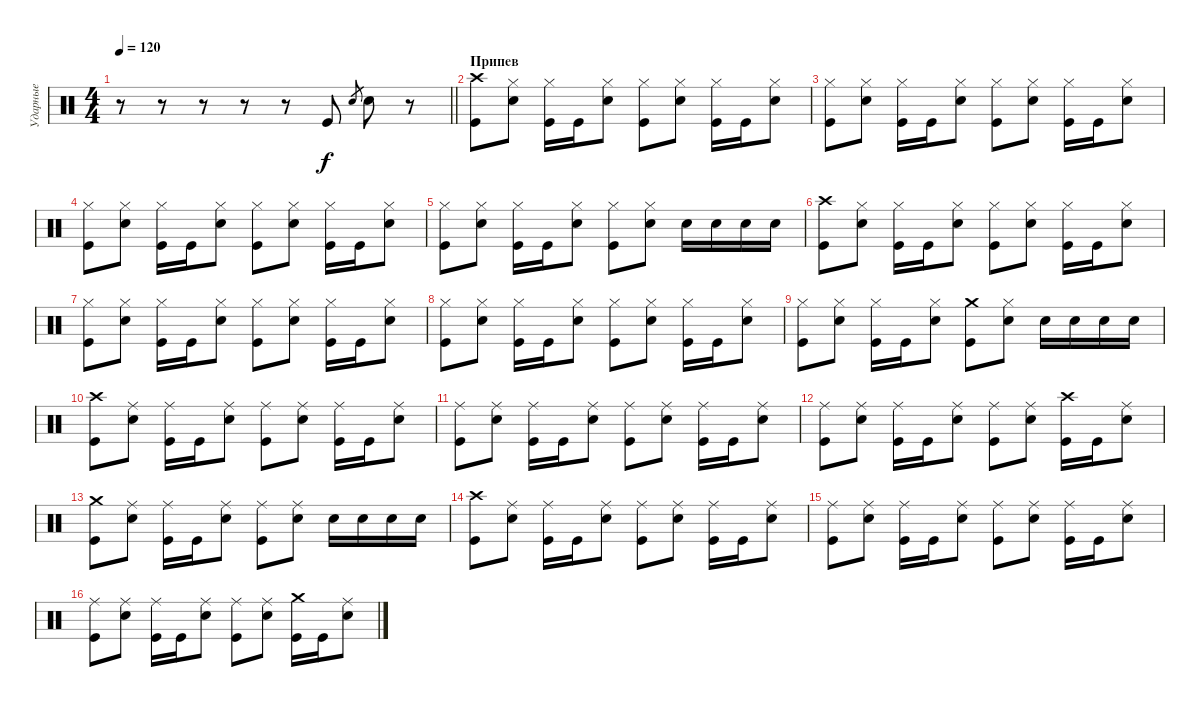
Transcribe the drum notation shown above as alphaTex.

\track ("Ударные" "Ударные") {solo instrument percussion}
\staff {score}
\articulation defaults
\ts (4 4)
\tempo 120
\clef neutral
\barLineRight lightlight
\ks c
r.8{dy f} r.8 r.8 r.8 r.8 "Kick (hit)".8 "Snare (hit) 2".8{gr} "Snare (hit) 2".8 r.8 |
\section ("" "Припев")
("Kick (hit)" "Crash high (hit)").8 ("Snare (hit) 2" "Hi-Hat (closed)").8 ("Kick (hit)" "Hi-Hat (closed)").16 "Kick (hit)".16 ("Snare (hit) 2" "Hi-Hat (closed)").8 ("Kick (hit)" "Hi-Hat (closed)").8 ("Snare (hit) 2" "Hi-Hat (closed)").8 ("Kick (hit)" "Hi-Hat (closed)").16 "Kick (hit)".16 ("Snare (hit) 2" "Hi-Hat (closed)").8 |
("Kick (hit)" "Hi-Hat (closed)").8 ("Snare (hit) 2" "Hi-Hat (closed)").8 ("Kick (hit)" "Hi-Hat (closed)").16 "Kick (hit)".16 ("Snare (hit) 2" "Hi-Hat (closed)").8 ("Kick (hit)" "Hi-Hat (closed)").8 ("Snare (hit) 2" "Hi-Hat (closed)").8 ("Kick (hit)" "Hi-Hat (closed)").16 "Kick (hit)".16 ("Snare (hit) 2" "Hi-Hat (closed)").8 |
("Kick (hit)" "Hi-Hat (closed)").8 ("Snare (hit) 2" "Hi-Hat (closed)").8 ("Kick (hit)" "Hi-Hat (closed)").16 "Kick (hit)".16 ("Snare (hit) 2" "Hi-Hat (closed)").8 ("Kick (hit)" "Hi-Hat (closed)").8 ("Snare (hit) 2" "Hi-Hat (closed)").8 ("Kick (hit)" "Hi-Hat (closed)").16 "Kick (hit)".16 ("Snare (hit) 2" "Hi-Hat (closed)").8 |
("Kick (hit)" "Hi-Hat (closed)").8 ("Snare (hit) 2" "Hi-Hat (closed)").8 ("Kick (hit)" "Hi-Hat (closed)").16 "Kick (hit)".16 ("Snare (hit) 2" "Hi-Hat (closed)").8 ("Kick (hit)" "Hi-Hat (closed)").8 ("Snare (hit) 2" "Hi-Hat (closed)").8 "Snare (hit) 2".16 "Snare (hit) 2".16 "Snare (hit) 2".16 "Snare (hit) 2".16 |
("Kick (hit)" "Crash high (hit)").8 ("Snare (hit) 2" "Hi-Hat (closed)").8 ("Kick (hit)" "Hi-Hat (closed)").16 "Kick (hit)".16 ("Snare (hit) 2" "Hi-Hat (closed)").8 ("Kick (hit)" "Hi-Hat (closed)").8 ("Snare (hit) 2" "Hi-Hat (closed)").8 ("Kick (hit)" "Hi-Hat (closed)").16 "Kick (hit)".16 ("Snare (hit) 2" "Hi-Hat (closed)").8 |
("Kick (hit)" "Hi-Hat (closed)").8 ("Snare (hit) 2" "Hi-Hat (closed)").8 ("Kick (hit)" "Hi-Hat (closed)").16 "Kick (hit)".16 ("Snare (hit) 2" "Hi-Hat (closed)").8 ("Kick (hit)" "Hi-Hat (closed)").8 ("Snare (hit) 2" "Hi-Hat (closed)").8 ("Kick (hit)" "Hi-Hat (closed)").16 "Kick (hit)".16 ("Snare (hit) 2" "Hi-Hat (closed)").8 |
("Kick (hit)" "Hi-Hat (closed)").8 ("Snare (hit) 2" "Hi-Hat (closed)").8 ("Kick (hit)" "Hi-Hat (closed)").16 "Kick (hit)".16 ("Snare (hit) 2" "Hi-Hat (closed)").8 ("Kick (hit)" "Hi-Hat (closed)").8 ("Snare (hit) 2" "Hi-Hat (closed)").8 ("Kick (hit)" "Hi-Hat (closed)").16 "Kick (hit)".16 ("Snare (hit) 2" "Hi-Hat (closed)").8 |
("Kick (hit)" "Hi-Hat (closed)").8 ("Snare (hit) 2" "Hi-Hat (closed)").8 ("Kick (hit)" "Hi-Hat (closed)").16 "Kick (hit)".16 ("Snare (hit) 2" "Hi-Hat (closed)").8 ("Kick (hit)" "Crash medium (hit)").8 ("Snare (hit) 2" "Hi-Hat (closed)").8 "Snare (hit) 2".16 "Snare (hit) 2".16 "Snare (hit) 2".16 "Snare (hit) 2".16 |
("Kick (hit)" "Crash high (hit)").8 ("Snare (hit) 2" "Ride (middle)").8 ("Kick (hit)" "Ride (middle)").16 "Kick (hit)".16 ("Snare (hit) 2" "Ride (middle)").8 ("Kick (hit)" "Ride (middle)").8 ("Snare (hit) 2" "Ride (middle)").8 ("Kick (hit)" "Ride (middle)").16 "Kick (hit)".16 ("Snare (hit) 2" "Ride (middle)").8 |
("Kick (hit)" "Ride (middle)").8 ("Snare (hit) 2" "Ride (middle)").8 ("Kick (hit)" "Ride (middle)").16 "Kick (hit)".16 ("Snare (hit) 2" "Ride (middle)").8 ("Kick (hit)" "Ride (middle)").8 ("Snare (hit) 2" "Ride (middle)").8 ("Kick (hit)" "Ride (middle)").16 "Kick (hit)".16 ("Snare (hit) 2" "Ride (middle)").8 |
("Kick (hit)" "Ride (middle)").8 ("Snare (hit) 2" "Ride (middle)").8 ("Kick (hit)" "Ride (middle)").16 "Kick (hit)".16 ("Snare (hit) 2" "Ride (middle)").8 ("Kick (hit)" "Ride (middle)").8 ("Snare (hit) 2" "Ride (middle)").8 ("Kick (hit)" "Crash high (hit)").16 "Kick (hit)".16 ("Snare (hit) 2" "Ride (middle)").8 |
("Kick (hit)" "Crash medium (hit)").8 ("Snare (hit) 2" "Ride (middle)").8 ("Kick (hit)" "Ride (middle)").16 "Kick (hit)".16 ("Snare (hit) 2" "Ride (middle)").8 ("Kick (hit)" "Ride (middle)").8 ("Snare (hit) 2" "Ride (middle)").8 "Snare (hit) 2".16 "Snare (hit) 2".16 "Snare (hit) 2".16 "Snare (hit) 2".16 |
("Kick (hit)" "Crash high (hit)").8 ("Snare (hit) 2" "Ride (middle)").8 ("Kick (hit)" "Ride (middle)").16 "Kick (hit)".16 ("Snare (hit) 2" "Ride (middle)").8 ("Kick (hit)" "Ride (middle)").8 ("Snare (hit) 2" "Ride (middle)").8 ("Kick (hit)" "Ride (middle)").16 "Kick (hit)".16 ("Snare (hit) 2" "Ride (middle)").8 |
("Kick (hit)" "Ride (middle)").8 ("Snare (hit) 2" "Ride (middle)").8 ("Kick (hit)" "Ride (middle)").16 "Kick (hit)".16 ("Snare (hit) 2" "Ride (middle)").8 ("Kick (hit)" "Ride (middle)").8 ("Snare (hit) 2" "Ride (middle)").8 ("Kick (hit)" "Ride (middle)").16 "Kick (hit)".16 ("Snare (hit) 2" "Ride (middle)").8 |
("Kick (hit)" "Ride (middle)").8 ("Snare (hit) 2" "Ride (middle)").8 ("Kick (hit)" "Ride (middle)").16 "Kick (hit)".16 ("Snare (hit) 2" "Ride (middle)").8 ("Kick (hit)" "Ride (middle)").8 ("Snare (hit) 2" "Ride (middle)").8 ("Kick (hit)" "Crash medium (hit)").16 "Kick (hit)".16 ("Snare (hit) 2" "Ride (middle)").8
